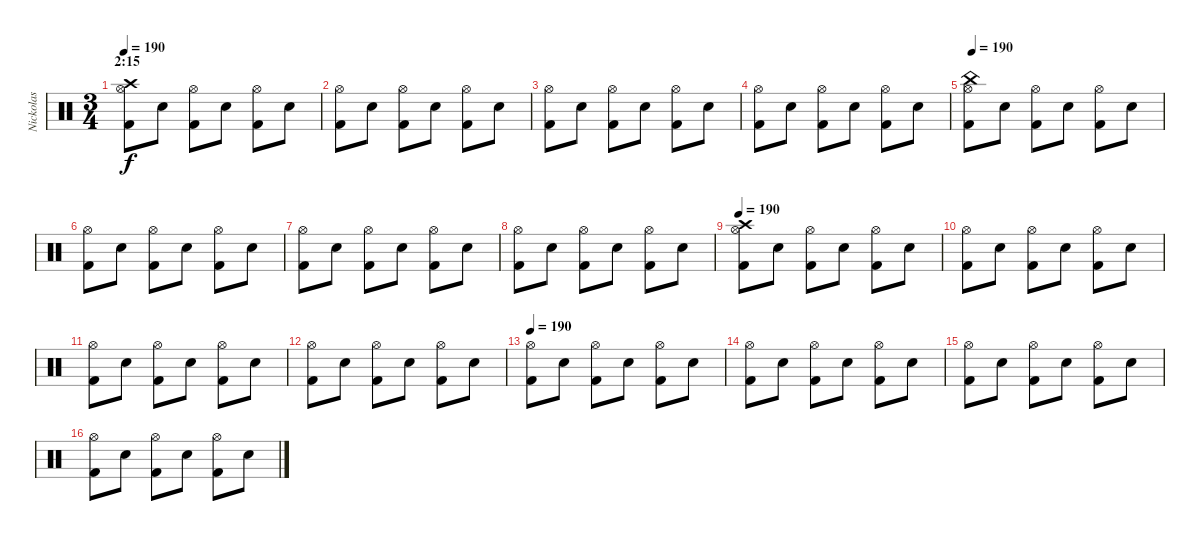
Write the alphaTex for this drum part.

\track ("Nickolas " "Nickolas ") {instrument percussion}
\staff {score}
\articulation defaults
\ts (3 4)
\section ("" "2:15")
\tempo 190
\clef neutral
\ks c
("Kick (hit) 2" "Hi-Hat (open)" "Crash high (hit)").8{dy f} "Snare (hit) 2".8 ("Kick (hit) 2" "Hi-Hat (open)").8 "Snare (hit) 2".8 ("Kick (hit) 2" "Hi-Hat (open)").8 "Snare (hit) 2".8 |
("Kick (hit) 2" "Hi-Hat (open)").8 "Snare (hit) 2".8 ("Kick (hit) 2" "Hi-Hat (open)").8 "Snare (hit) 2".8 ("Kick (hit) 2" "Hi-Hat (open)").8 "Snare (hit) 2".8 |
("Kick (hit) 2" "Hi-Hat (open)").8 "Snare (hit) 2".8 ("Kick (hit) 2" "Hi-Hat (open)").8 "Snare (hit) 2".8 ("Kick (hit) 2" "Hi-Hat (open)").8 "Snare (hit) 2".8 |
("Kick (hit) 2" "Hi-Hat (open)").8 "Snare (hit) 2".8 ("Kick (hit) 2" "Hi-Hat (open)").8 "Snare (hit) 2".8 ("Kick (hit) 2" "Hi-Hat (open)").8 "Snare (hit) 2".8 |
\tempo 190
("Kick (hit) 2" "Hi-Hat (open)" "China (hit)").8 "Snare (hit) 2".8 ("Kick (hit) 2" "Hi-Hat (open)").8 "Snare (hit) 2".8 ("Kick (hit) 2" "Hi-Hat (open)").8 "Snare (hit) 2".8 |
("Kick (hit) 2" "Hi-Hat (open)").8 "Snare (hit) 2".8 ("Kick (hit) 2" "Hi-Hat (open)").8 "Snare (hit) 2".8 ("Kick (hit) 2" "Hi-Hat (open)").8 "Snare (hit) 2".8 |
("Kick (hit) 2" "Hi-Hat (open)").8 "Snare (hit) 2".8 ("Kick (hit) 2" "Hi-Hat (open)").8 "Snare (hit) 2".8 ("Kick (hit) 2" "Hi-Hat (open)").8 "Snare (hit) 2".8 |
("Kick (hit) 2" "Hi-Hat (open)").8 "Snare (hit) 2".8 ("Kick (hit) 2" "Hi-Hat (open)").8 "Snare (hit) 2".8 ("Kick (hit) 2" "Hi-Hat (open)").8 "Snare (hit) 2".8 |
\tempo 190
("Kick (hit) 2" "Hi-Hat (open)" "Crash high (hit)").8 "Snare (hit) 2".8 ("Kick (hit) 2" "Hi-Hat (open)").8 "Snare (hit) 2".8 ("Kick (hit) 2" "Hi-Hat (open)").8 "Snare (hit) 2".8 |
("Kick (hit) 2" "Hi-Hat (open)").8 "Snare (hit) 2".8 ("Kick (hit) 2" "Hi-Hat (open)").8 "Snare (hit) 2".8 ("Kick (hit) 2" "Hi-Hat (open)").8 "Snare (hit) 2".8 |
("Kick (hit) 2" "Hi-Hat (open)").8 "Snare (hit) 2".8 ("Kick (hit) 2" "Hi-Hat (open)").8 "Snare (hit) 2".8 ("Kick (hit) 2" "Hi-Hat (open)").8 "Snare (hit) 2".8 |
("Kick (hit) 2" "Hi-Hat (open)").8 "Snare (hit) 2".8 ("Kick (hit) 2" "Hi-Hat (open)").8 "Snare (hit) 2".8 ("Kick (hit) 2" "Hi-Hat (open)").8 "Snare (hit) 2".8 |
\tempo 190
("Kick (hit) 2" "Hi-Hat (open)").8 "Snare (hit) 2".8 ("Kick (hit) 2" "Hi-Hat (open)").8 "Snare (hit) 2".8 ("Kick (hit) 2" "Hi-Hat (open)").8 "Snare (hit) 2".8 |
("Kick (hit) 2" "Hi-Hat (open)").8 "Snare (hit) 2".8 ("Kick (hit) 2" "Hi-Hat (open)").8 "Snare (hit) 2".8 ("Kick (hit) 2" "Hi-Hat (open)").8 "Snare (hit) 2".8 |
("Kick (hit) 2" "Hi-Hat (open)").8 "Snare (hit) 2".8 ("Kick (hit) 2" "Hi-Hat (open)").8 "Snare (hit) 2".8 ("Kick (hit) 2" "Hi-Hat (open)").8 "Snare (hit) 2".8 |
("Kick (hit) 2" "Hi-Hat (open)").8 "Snare (hit) 2".8 ("Kick (hit) 2" "Hi-Hat (open)").8 "Snare (hit) 2".8 ("Kick (hit) 2" "Hi-Hat (open)").8 "Snare (hit) 2".8
